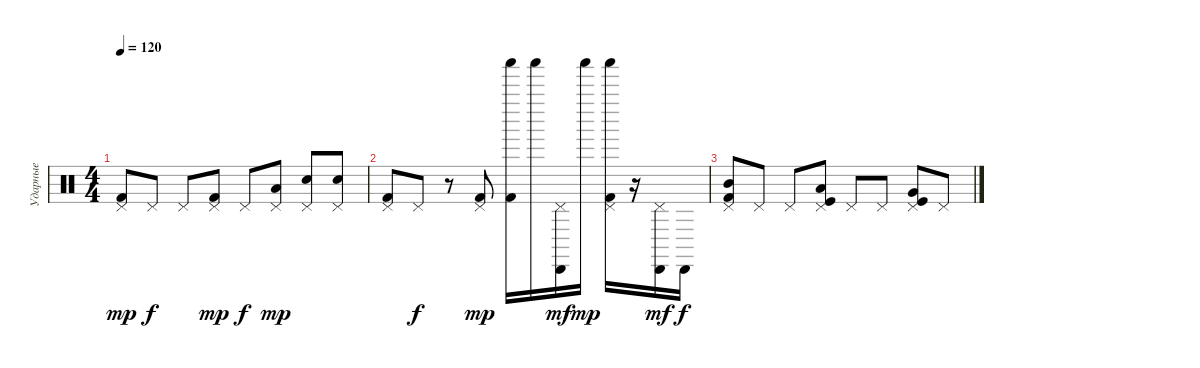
\track ("Ударные" "Ударные") {instrument percussion}
\staff {score}
\articulation defaults
\ts (4 4)
\tempo 120
\clef neutral
\ks c
("Pedal Hi-Hat (hit)" "Kick (hit) 2").8{dy mp} "Pedal Hi-Hat (hit)".8{dy f} "Pedal Hi-Hat (hit)".8 ("Pedal Hi-Hat (hit)" "Kick (hit) 2").8{dy mp} "Pedal Hi-Hat (hit)".8{dy f} ("Pedal Hi-Hat (hit)" "Low Floor Tom (hit)").8{dy mp} ("Pedal Hi-Hat (hit)" "Snare (hit) 2").8 ("Pedal Hi-Hat (hit)" "Snare (hit) 2").8 |
("Pedal Hi-Hat (hit)" "Kick (hit) 2").8 "Pedal Hi-Hat (hit)".8{dy f} r.8 ("Pedal Hi-Hat (hit)" "Kick (hit) 2").8{dy mp} ("Shaker (hit)" "Kick (hit) 2").16 "Shaker (hit)".16 ("Pedal Hi-Hat (hit)" "Cabasa (hit)").16{dy mf} "Shaker (hit)".16{dy mp} ("Pedal Hi-Hat (hit)" "Shaker (hit)" "Kick (hit) 2").16 r.16 ("Pedal Hi-Hat (hit)" "Cabasa (hit)").16{dy mf} "Cabasa (hit)".16{dy f} |
("Pedal Hi-Hat (hit)" "Mid Tom (hit)" "Kick (hit) 2").8 "Pedal Hi-Hat (hit)".8 "Pedal Hi-Hat (hit)".8 ("Pedal Hi-Hat (hit)" "Low Tom (hit)" "Kick (hit)").8 "Pedal Hi-Hat (hit)".8 "Pedal Hi-Hat (hit)".8 ("Pedal Hi-Hat (hit)" "Very Low Tom (hit)" "Kick (hit)").8 "Pedal Hi-Hat (hit)".8
